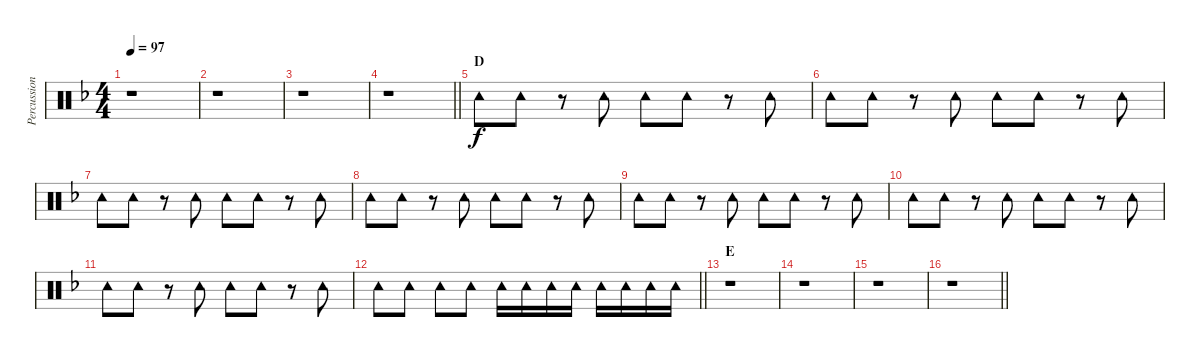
\track ("Percussion" "Percussion") {instrument percussion}
\staff {score}
\articulation defaults
\ts (4 4)
\tempo 97
\clef neutral
\ks f
r.1{dy f} |
r.1 |
r.1 |
\barLineRight lightlight
r.1 |
\section ("" "D")
"Tambourine (hit)".8 "Tambourine (hit)".8 r.8 "Tambourine (hit)".8 "Tambourine (hit)".8 "Tambourine (hit)".8 r.8 "Tambourine (hit)".8 |
"Tambourine (hit)".8 "Tambourine (hit)".8 r.8 "Tambourine (hit)".8 "Tambourine (hit)".8 "Tambourine (hit)".8 r.8 "Tambourine (hit)".8 |
"Tambourine (hit)".8 "Tambourine (hit)".8 r.8 "Tambourine (hit)".8 "Tambourine (hit)".8 "Tambourine (hit)".8 r.8 "Tambourine (hit)".8 |
"Tambourine (hit)".8 "Tambourine (hit)".8 r.8 "Tambourine (hit)".8 "Tambourine (hit)".8 "Tambourine (hit)".8 r.8 "Tambourine (hit)".8 |
"Tambourine (hit)".8 "Tambourine (hit)".8 r.8 "Tambourine (hit)".8 "Tambourine (hit)".8 "Tambourine (hit)".8 r.8 "Tambourine (hit)".8 |
"Tambourine (hit)".8 "Tambourine (hit)".8 r.8 "Tambourine (hit)".8 "Tambourine (hit)".8 "Tambourine (hit)".8 r.8 "Tambourine (hit)".8 |
"Tambourine (hit)".8 "Tambourine (hit)".8 r.8 "Tambourine (hit)".8 "Tambourine (hit)".8 "Tambourine (hit)".8 r.8 "Tambourine (hit)".8 |
\barLineRight lightlight "Tambourine (hit)".8 "Tambourine (hit)".8 "Tambourine (hit)".8 "Tambourine (hit)".8 "Tambourine (hit)".16 "Tambourine (hit)".16 "Tambourine (hit)".16 "Tambourine (hit)".16 "Tambourine (hit)".16 "Tambourine (hit)".16 "Tambourine (hit)".16 "Tambourine (hit)".16
|
\section ("" "E")
r.1 |
r.1 |
r.1 |
\barLineRight lightlight
r.1
